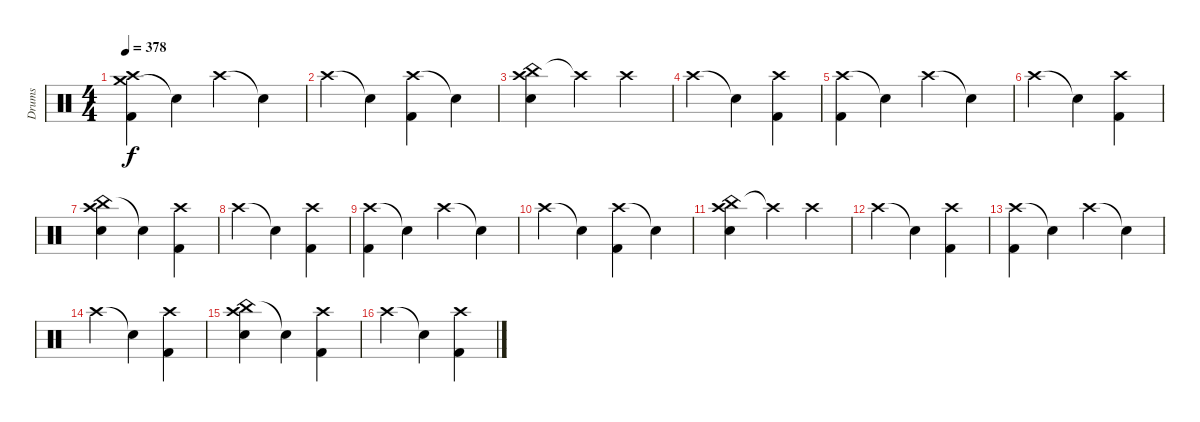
\track ("Drums" "Drums") {instrument percussion}
\staff {score}
\articulation defaults
\ts (4 4)
\tempo 378
\clef neutral
\ks c
("Crash medium (hit)" "Crash high (hit)" "Kick (hit) 2").4{dy f} "Snare (hit)"{t}.4 "Crash high (hit)".4 "Snare (hit)"{t}.4 |
"Crash high (hit)".4 "Snare (hit)"{t}.4 ("Crash high (hit)" "Kick (hit) 2").4 "Snare (hit)"{t}.4 |
("China (hit)" "Crash high (hit)" "Electric Snare (hit)").4 "Crash high (hit)"{t}.4 "Crash high (hit)".4 |
"Crash high (hit)".4 "Snare (hit)"{t}.4 ("Crash high (hit)" "Kick (hit) 2").4 |
("Crash high (hit)" "Kick (hit) 2").4 "Snare (hit)"{t}.4 "Crash high (hit)".4 "Snare (hit)"{t}.4 |
"Crash high (hit)".4 "Snare (hit)"{t}.4 ("Crash high (hit)" "Kick (hit) 2").4 |
("China (hit)" "Crash high (hit)" "Electric Snare (hit)").4 "Snare (hit)"{t}.4 ("Crash high (hit)" "Kick (hit) 2").4 |
"Crash high (hit)".4 "Snare (hit)"{t}.4 ("Crash high (hit)" "Kick (hit) 2").4 |
("Crash high (hit)" "Kick (hit) 2").4 "Snare (hit)"{t}.4 "Crash high (hit)".4 "Snare (hit)"{t}.4 |
"Crash high (hit)".4 "Snare (hit)"{t}.4 ("Crash high (hit)" "Kick (hit) 2").4 "Snare (hit)"{t}.4 |
("China (hit)" "Crash high (hit)" "Electric Snare (hit)").4 "Crash high (hit)"{t}.4 "Crash high (hit)".4 |
"Crash high (hit)".4 "Snare (hit)"{t}.4 ("Crash high (hit)" "Kick (hit) 2").4 |
("Crash high (hit)" "Kick (hit) 2").4 "Snare (hit)"{t}.4 "Crash high (hit)".4 "Snare (hit)"{t}.4 |
"Crash high (hit)".4 "Snare (hit)"{t}.4 ("Crash high (hit)" "Kick (hit) 2").4 |
("China (hit)" "Crash high (hit)" "Electric Snare (hit)").4 "Snare (hit)"{t}.4 ("Crash high (hit)" "Kick (hit) 2").4 |
"Crash high (hit)".4 "Snare (hit)"{t}.4 ("Crash high (hit)" "Kick (hit) 2").4
